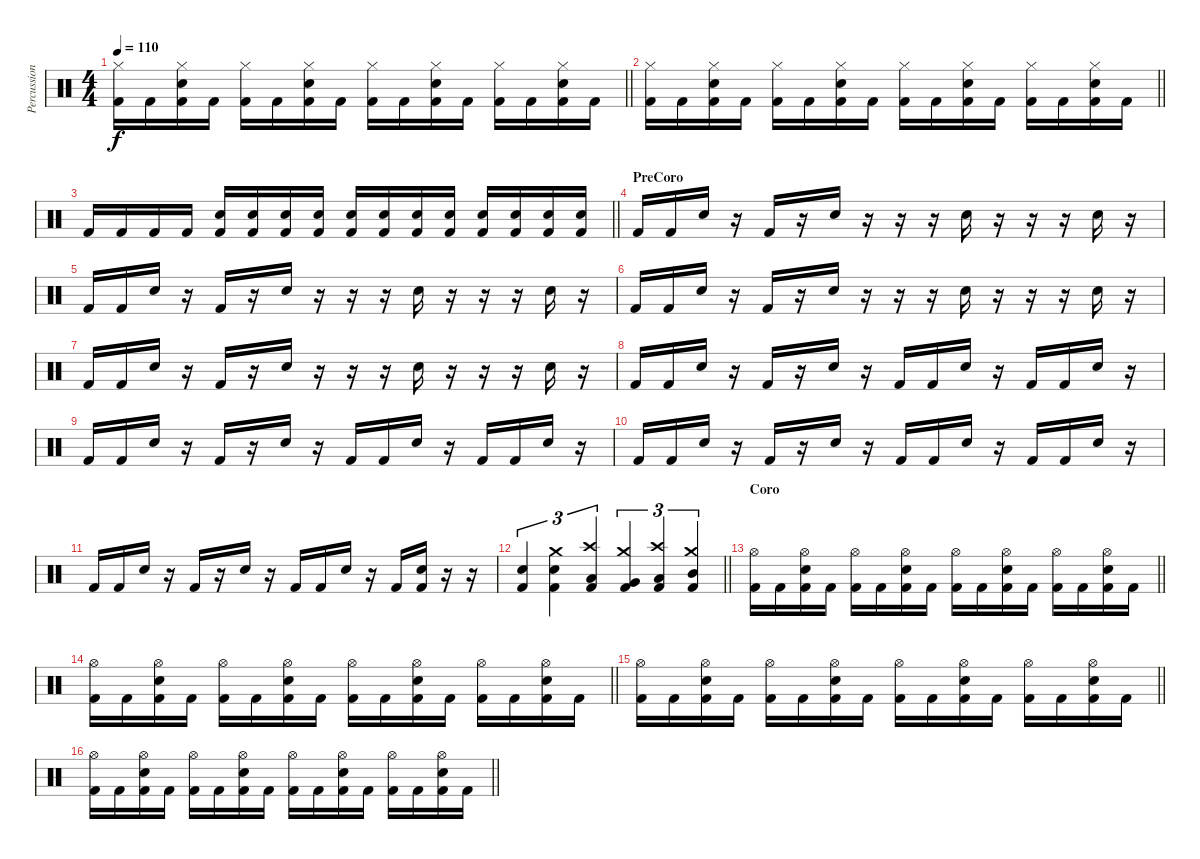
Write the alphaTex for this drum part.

\track ("Percussion" "Percussion") {instrument percussion}
\staff {score}
\articulation defaults
\ts (4 4)
\tempo 110
\clef neutral
\barLineRight lightlight
\ks c
("Hi-Hat (closed)" "Kick (hit) 2").16{dy f} "Kick (hit) 2".16 ("Hi-Hat (closed)" "Electric Snare (hit)" "Kick (hit) 2").16 "Kick (hit) 2".16 ("Hi-Hat (closed)" "Kick (hit) 2").16 "Kick (hit) 2".16 ("Hi-Hat (closed)" "Electric Snare (hit)" "Kick (hit) 2").16 "Kick (hit) 2".16 ("Hi-Hat (closed)" "Kick (hit) 2").16 "Kick (hit) 2".16 ("Hi-Hat (closed)" "Electric Snare (hit)" "Kick (hit) 2").16 "Kick (hit) 2".16 ("Hi-Hat (closed)" "Kick (hit) 2").16 "Kick (hit) 2".16 ("Hi-Hat (closed)" "Electric Snare (hit)" "Kick (hit) 2").16 "Kick (hit) 2".16 |
\barLineRight lightlight
("Hi-Hat (closed)" "Kick (hit) 2").16 "Kick (hit) 2".16 ("Hi-Hat (closed)" "Electric Snare (hit)" "Kick (hit) 2").16 "Kick (hit) 2".16 ("Hi-Hat (closed)" "Kick (hit) 2").16 "Kick (hit) 2".16 ("Hi-Hat (closed)" "Electric Snare (hit)" "Kick (hit) 2").16 "Kick (hit) 2".16 ("Hi-Hat (closed)" "Kick (hit) 2").16 "Kick (hit) 2".16 ("Hi-Hat (closed)" "Electric Snare (hit)" "Kick (hit) 2").16 "Kick (hit) 2".16 ("Hi-Hat (closed)" "Kick (hit) 2").16 "Kick (hit) 2".16 ("Hi-Hat (closed)" "Electric Snare (hit)" "Kick (hit) 2").16 "Kick (hit) 2".16 |
\barLineRight lightlight "Kick (hit) 2".16 "Kick (hit) 2".16 "Kick (hit) 2".16 "Kick (hit) 2".16
("Electric Snare (hit)" "Kick (hit) 2").16 ("Electric Snare (hit)" "Kick (hit) 2").16 ("Electric Snare (hit)" "Kick (hit) 2").16 ("Electric Snare (hit)" "Kick (hit) 2").16 ("Electric Snare (hit)" "Kick (hit) 2").16 ("Electric Snare (hit)" "Kick (hit) 2").16 ("Electric Snare (hit)" "Kick (hit) 2").16 ("Electric Snare (hit)" "Kick (hit) 2").16 ("Electric Snare (hit)" "Kick (hit) 2").16 ("Electric Snare (hit)" "Kick (hit) 2").16 ("Electric Snare (hit)" "Kick (hit) 2").16 ("Electric Snare (hit)" "Kick (hit) 2").16 |
\section ("" "PreCoro")
"Kick (hit) 2".16 "Kick (hit) 2".16 "Electric Snare (hit)".16 r.16 "Kick (hit) 2".16 r.16 "Electric Snare (hit)".16 r.16 r.16 r.16 "Electric Snare (hit)".16 r.16 r.16 r.16 "Electric Snare (hit)".16 r.16 |
"Kick (hit) 2".16 "Kick (hit) 2".16 "Electric Snare (hit)".16 r.16 "Kick (hit) 2".16 r.16 "Electric Snare (hit)".16 r.16 r.16 r.16 "Electric Snare (hit)".16 r.16 r.16 r.16 "Electric Snare (hit)".16 r.16 |
"Kick (hit) 2".16 "Kick (hit) 2".16 "Electric Snare (hit)".16 r.16 "Kick (hit) 2".16 r.16 "Electric Snare (hit)".16 r.16 r.16 r.16 "Electric Snare (hit)".16 r.16 r.16 r.16 "Electric Snare (hit)".16 r.16 |
"Kick (hit) 2".16 "Kick (hit) 2".16 "Electric Snare (hit)".16 r.16 "Kick (hit) 2".16 r.16 "Electric Snare (hit)".16 r.16 r.16 r.16 "Electric Snare (hit)".16 r.16 r.16 r.16 "Electric Snare (hit)".16 r.16 |
"Kick (hit) 2".16 "Kick (hit) 2".16 "Electric Snare (hit)".16 r.16 "Kick (hit) 2".16 r.16 "Electric Snare (hit)".16 r.16 "Kick (hit) 2".16 "Kick (hit) 2".16 "Electric Snare (hit)".16 r.16 "Kick (hit) 2".16 "Kick (hit) 2".16 "Electric Snare (hit)".16 r.16 |
"Kick (hit) 2".16 "Kick (hit) 2".16 "Electric Snare (hit)".16 r.16 "Kick (hit) 2".16 r.16 "Electric Snare (hit)".16 r.16 "Kick (hit) 2".16 "Kick (hit) 2".16 "Electric Snare (hit)".16 r.16 "Kick (hit) 2".16 "Kick (hit) 2".16 "Electric Snare (hit)".16 r.16 |
"Kick (hit) 2".16 "Kick (hit) 2".16 "Electric Snare (hit)".16 r.16 "Kick (hit) 2".16 r.16 "Electric Snare (hit)".16 r.16 "Kick (hit) 2".16 "Kick (hit) 2".16 "Electric Snare (hit)".16 r.16 "Kick (hit) 2".16 "Kick (hit) 2".16 "Electric Snare (hit)".16 r.16 |
"Kick (hit) 2".16 "Kick (hit) 2".16 "Electric Snare (hit)".16 r.16 "Kick (hit) 2".16 r.16 "Electric Snare (hit)".16 r.16 "Kick (hit) 2".16 "Kick (hit) 2".16 "Electric Snare (hit)".16 r.16 "Kick (hit) 2".16 ("Electric Snare (hit)" "Kick (hit) 2").16 r.16 r.16 |
\barLineRight lightlight
("Electric Snare (hit)" "Kick (hit) 2").4{tu (3 2)} ("Crash medium (hit)" "Electric Snare (hit)" "Kick (hit) 2").4{tu (3 2)} ("Crash high (hit)" "Low Floor Tom (hit)" "Kick (hit) 2").4{tu (3 2)} ("Crash medium (hit)" "Very Low Tom (hit)" "Kick (hit) 2").4{tu (3 2)} ("Crash high (hit)" "Low Tom (hit)" "Kick (hit) 2").4{tu (3 2)} ("Crash medium (hit)" "Mid Tom (hit)" "Kick (hit) 2").4{tu (3 2)} |
\section ("" "Coro")
\barLineRight lightlight
("Hi-Hat (open)" "Kick (hit) 2").16 "Kick (hit) 2".16 ("Hi-Hat (open)" "Electric Snare (hit)" "Kick (hit) 2").16 "Kick (hit) 2".16 ("Hi-Hat (open)" "Kick (hit) 2").16 "Kick (hit) 2".16 ("Hi-Hat (open)" "Electric Snare (hit)" "Kick (hit) 2").16 "Kick (hit) 2".16 ("Hi-Hat (open)" "Kick (hit) 2").16 "Kick (hit) 2".16 ("Hi-Hat (open)" "Electric Snare (hit)" "Kick (hit) 2").16 "Kick (hit) 2".16 ("Hi-Hat (open)" "Kick (hit) 2").16 "Kick (hit) 2".16 ("Hi-Hat (open)" "Electric Snare (hit)" "Kick (hit) 2").16 "Kick (hit) 2".16 |
\barLineRight lightlight
("Hi-Hat (open)" "Kick (hit) 2").16 "Kick (hit) 2".16 ("Hi-Hat (open)" "Electric Snare (hit)" "Kick (hit) 2").16 "Kick (hit) 2".16 ("Hi-Hat (open)" "Kick (hit) 2").16 "Kick (hit) 2".16 ("Hi-Hat (open)" "Electric Snare (hit)" "Kick (hit) 2").16 "Kick (hit) 2".16 ("Hi-Hat (open)" "Kick (hit) 2").16 "Kick (hit) 2".16 ("Hi-Hat (open)" "Electric Snare (hit)" "Kick (hit) 2").16 "Kick (hit) 2".16 ("Hi-Hat (open)" "Kick (hit) 2").16 "Kick (hit) 2".16 ("Hi-Hat (open)" "Electric Snare (hit)" "Kick (hit) 2").16 "Kick (hit) 2".16 |
\barLineRight lightlight
("Hi-Hat (open)" "Kick (hit) 2").16 "Kick (hit) 2".16 ("Hi-Hat (open)" "Electric Snare (hit)" "Kick (hit) 2").16 "Kick (hit) 2".16 ("Hi-Hat (open)" "Kick (hit) 2").16 "Kick (hit) 2".16 ("Hi-Hat (open)" "Electric Snare (hit)" "Kick (hit) 2").16 "Kick (hit) 2".16 ("Hi-Hat (open)" "Kick (hit) 2").16 "Kick (hit) 2".16 ("Hi-Hat (open)" "Electric Snare (hit)" "Kick (hit) 2").16 "Kick (hit) 2".16 ("Hi-Hat (open)" "Kick (hit) 2").16 "Kick (hit) 2".16 ("Hi-Hat (open)" "Electric Snare (hit)" "Kick (hit) 2").16 "Kick (hit) 2".16 |
\barLineRight lightlight
("Hi-Hat (open)" "Kick (hit) 2").16 "Kick (hit) 2".16 ("Hi-Hat (open)" "Electric Snare (hit)" "Kick (hit) 2").16 "Kick (hit) 2".16 ("Hi-Hat (open)" "Kick (hit) 2").16 "Kick (hit) 2".16 ("Hi-Hat (open)" "Electric Snare (hit)" "Kick (hit) 2").16 "Kick (hit) 2".16 ("Hi-Hat (open)" "Kick (hit) 2").16 "Kick (hit) 2".16 ("Hi-Hat (open)" "Electric Snare (hit)" "Kick (hit) 2").16 "Kick (hit) 2".16 ("Hi-Hat (open)" "Kick (hit) 2").16 "Kick (hit) 2".16 ("Hi-Hat (open)" "Electric Snare (hit)" "Kick (hit) 2").16 "Kick (hit) 2".16
